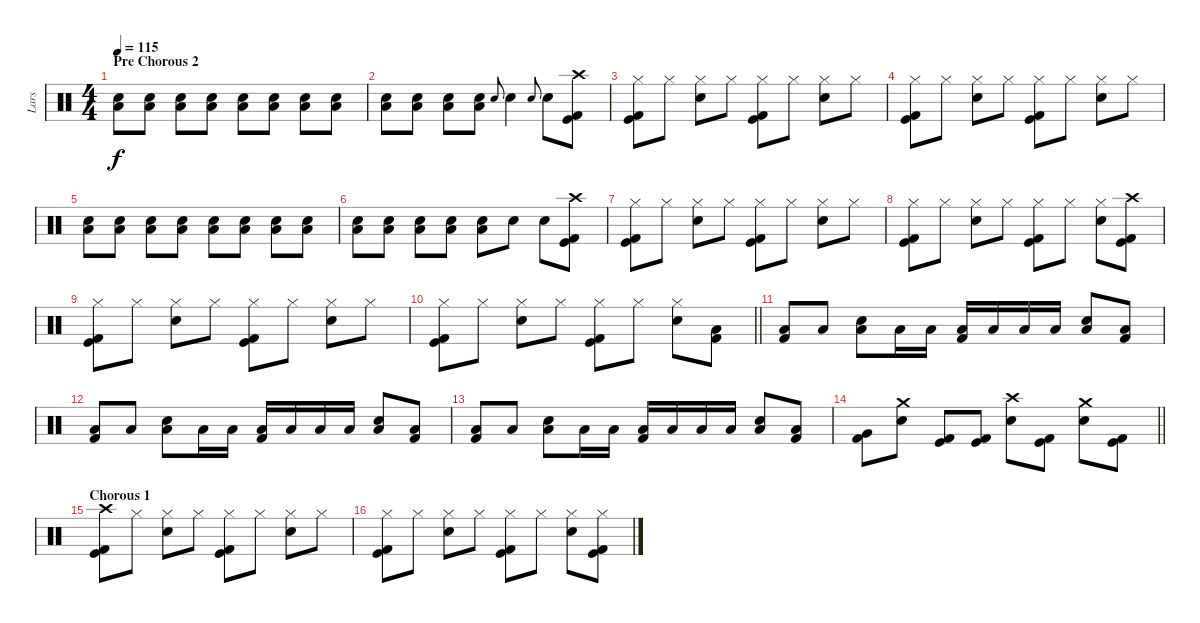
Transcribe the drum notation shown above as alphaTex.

\track ("Lars" "Lars") {instrument percussion}
\staff {score}
\articulation defaults
\ts (4 4)
\section ("" "Pre Chorous 2")
\tempo 115
\clef neutral
\ks c
("Electric Snare (hit)" "Low Floor Tom (hit)").8{dy f} ("Electric Snare (hit)" "Low Floor Tom (hit)").8 ("Electric Snare (hit)" "Low Floor Tom (hit)").8 ("Electric Snare (hit)" "Low Floor Tom (hit)").8 ("Electric Snare (hit)" "Low Floor Tom (hit)").8 ("Electric Snare (hit)" "Low Floor Tom (hit)").8 ("Electric Snare (hit)" "Low Floor Tom (hit)").8 ("Electric Snare (hit)" "Low Floor Tom (hit)").8 |
("Electric Snare (hit)" "Low Floor Tom (hit)").8 ("Electric Snare (hit)" "Low Floor Tom (hit)").8 ("Electric Snare (hit)" "Low Floor Tom (hit)").8 ("Electric Snare (hit)" "Low Floor Tom (hit)").8 "Electric Snare (hit)".8{gr onbeat} "Electric Snare (hit)".4 "Electric Snare (hit)".8{gr onbeat} "Electric Snare (hit)".8 ("Crash high (hit)" "Kick (hit)" "Kick (hit) 2").8 |
("Hi-Hat (closed)" "Kick (hit)" "Kick (hit) 2").8 "Hi-Hat (closed)".8 ("Hi-Hat (closed)" "Electric Snare (hit)").8 "Hi-Hat (closed)".8 ("Hi-Hat (closed)" "Kick (hit)" "Kick (hit) 2").8 "Hi-Hat (closed)".8 ("Hi-Hat (closed)" "Electric Snare (hit)").8 "Hi-Hat (closed)".8 |
("Hi-Hat (closed)" "Kick (hit)" "Kick (hit) 2").8 "Hi-Hat (closed)".8 ("Hi-Hat (closed)" "Electric Snare (hit)").8 "Hi-Hat (closed)".8 ("Hi-Hat (closed)" "Kick (hit)" "Kick (hit) 2").8 "Hi-Hat (closed)".8 ("Hi-Hat (closed)" "Electric Snare (hit)").8 "Hi-Hat (closed)".8 |
("Electric Snare (hit)" "Low Floor Tom (hit)").8 ("Electric Snare (hit)" "Low Floor Tom (hit)").8 ("Electric Snare (hit)" "Low Floor Tom (hit)").8 ("Electric Snare (hit)" "Low Floor Tom (hit)").8 ("Electric Snare (hit)" "Low Floor Tom (hit)").8 ("Electric Snare (hit)" "Low Floor Tom (hit)").8 ("Electric Snare (hit)" "Low Floor Tom (hit)").8 ("Electric Snare (hit)" "Low Floor Tom (hit)").8 |
("Electric Snare (hit)" "Low Floor Tom (hit)").8 ("Electric Snare (hit)" "Low Floor Tom (hit)").8 ("Electric Snare (hit)" "Low Floor Tom (hit)").8 ("Electric Snare (hit)" "Low Floor Tom (hit)").8 ("Electric Snare (hit)" "Low Floor Tom (hit)").8 "Electric Snare (hit)".8 "Electric Snare (hit)".8 ("Crash high (hit)" "Kick (hit)" "Kick (hit) 2").8 |
("Hi-Hat (closed)" "Kick (hit)" "Kick (hit) 2").8 "Hi-Hat (closed)".8 ("Hi-Hat (closed)" "Electric Snare (hit)").8 "Hi-Hat (closed)".8 ("Hi-Hat (closed)" "Kick (hit)" "Kick (hit) 2").8 "Hi-Hat (closed)".8 ("Hi-Hat (closed)" "Electric Snare (hit)").8 "Hi-Hat (closed)".8 |
("Hi-Hat (closed)" "Kick (hit)" "Kick (hit) 2").8 "Hi-Hat (closed)".8 ("Hi-Hat (closed)" "Electric Snare (hit)").8 "Hi-Hat (closed)".8 ("Hi-Hat (closed)" "Kick (hit)" "Kick (hit) 2").8 "Hi-Hat (closed)".8 ("Hi-Hat (closed)" "Electric Snare (hit)").8 ("Crash high (hit)" "Kick (hit)" "Kick (hit) 2").8 |
("Hi-Hat (closed)" "Kick (hit)" "Kick (hit) 2").8 "Hi-Hat (closed)".8 ("Hi-Hat (closed)" "Electric Snare (hit)").8 "Hi-Hat (closed)".8 ("Hi-Hat (closed)" "Kick (hit)" "Kick (hit) 2").8 "Hi-Hat (closed)".8 ("Hi-Hat (closed)" "Electric Snare (hit)").8 "Hi-Hat (closed)".8 |
\barLineRight lightlight
("Hi-Hat (closed)" "Kick (hit)" "Kick (hit) 2").8 "Hi-Hat (closed)".8 ("Hi-Hat (closed)" "Electric Snare (hit)").8 "Hi-Hat (closed)".8 ("Hi-Hat (closed)" "Kick (hit)" "Kick (hit) 2").8 "Hi-Hat (closed)".8 ("Hi-Hat (closed)" "Electric Snare (hit)").8 ("Low Floor Tom (hit)" "Kick (hit) 2").8 |
("Low Floor Tom (hit)" "Kick (hit) 2").8 "Low Floor Tom (hit)".8 ("Electric Snare (hit)" "Low Floor Tom (hit)").8 "Low Floor Tom (hit)".16 "Low Tom (hit)".16 ("Low Floor Tom (hit)" "Kick (hit) 2").16 "Low Tom (hit)".16 "Low Floor Tom (hit)".16 "Low Tom (hit)".16 ("Electric Snare (hit)" "Low Floor Tom (hit)").8 ("Low Floor Tom (hit)" "Kick (hit) 2").8 |
("Low Floor Tom (hit)" "Kick (hit) 2").8 "Low Floor Tom (hit)".8 ("Electric Snare (hit)" "Low Floor Tom (hit)").8 "Low Floor Tom (hit)".16 "Low Tom (hit)".16 ("Low Floor Tom (hit)" "Kick (hit) 2").16 "Low Tom (hit)".16 "Low Floor Tom (hit)".16 "Low Tom (hit)".16 ("Electric Snare (hit)" "Low Floor Tom (hit)").8 ("Low Floor Tom (hit)" "Kick (hit) 2").8 |
("Low Floor Tom (hit)" "Kick (hit) 2").8 "Low Floor Tom (hit)".8 ("Electric Snare (hit)" "Low Floor Tom (hit)").8 "Low Floor Tom (hit)".16 "Low Tom (hit)".16 ("Low Floor Tom (hit)" "Kick (hit) 2").16 "Low Tom (hit)".16 "Low Floor Tom (hit)".16 "Low Tom (hit)".16 ("Electric Snare (hit)" "Low Floor Tom (hit)").8 ("Low Floor Tom (hit)" "Kick (hit) 2").8 |
\barLineRight lightlight
("Very Low Tom (hit)" "Kick (hit) 2").8 ("Crash medium (hit)" "Electric Snare (hit)").8 ("Kick (hit)" "Kick (hit) 2").8 ("Kick (hit)" "Kick (hit) 2").8 ("Crash high (hit)" "Electric Snare (hit)").8 ("Kick (hit)" "Kick (hit) 2").8 ("Crash medium (hit)" "Electric Snare (hit)").8 ("Kick (hit)" "Kick (hit) 2").8 |
\section ("" "Chorous 1")
("Crash high (hit)" "Kick (hit)" "Kick (hit) 2").8 "Hi-Hat (closed)".8 ("Hi-Hat (closed)" "Electric Snare (hit)").8 "Hi-Hat (closed)".8 ("Hi-Hat (closed)" "Kick (hit)" "Kick (hit) 2").8 "Hi-Hat (closed)".8 ("Hi-Hat (closed)" "Electric Snare (hit)").8 "Hi-Hat (closed)".8 |
("Hi-Hat (closed)" "Kick (hit)" "Kick (hit) 2").8 "Hi-Hat (closed)".8 ("Hi-Hat (closed)" "Electric Snare (hit)").8 "Hi-Hat (closed)".8 ("Hi-Hat (closed)" "Kick (hit)" "Kick (hit) 2").8 "Hi-Hat (closed)".8 ("Hi-Hat (closed)" "Electric Snare (hit)").8 ("Hi-Hat (closed)" "Kick (hit)" "Kick (hit) 2").8
